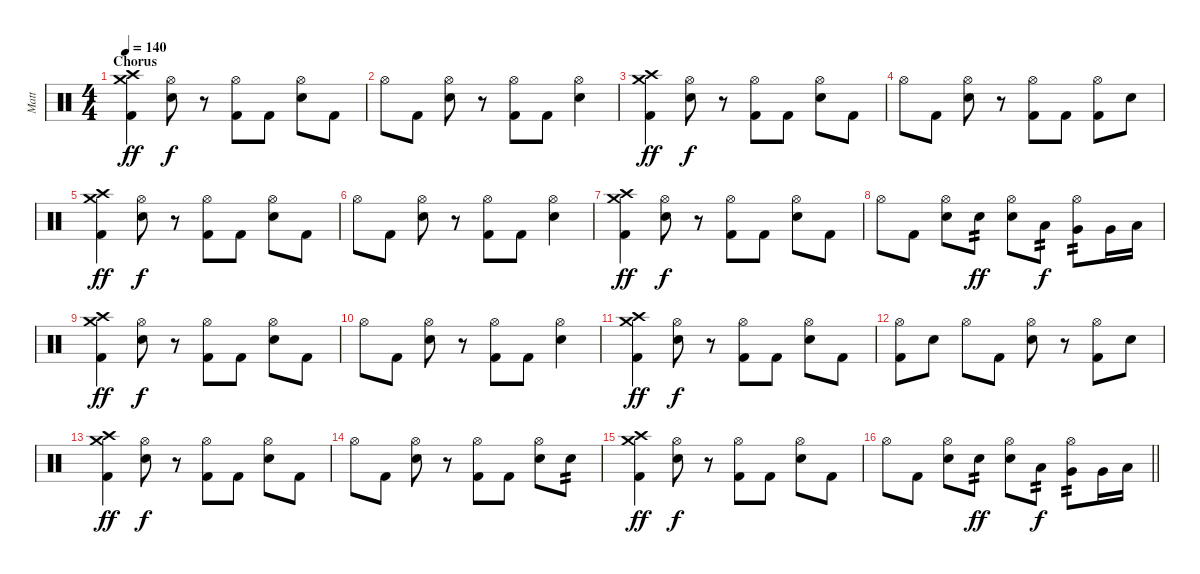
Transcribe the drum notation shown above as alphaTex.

\track ("Matt" "Matt") {instrument percussion}
\staff {score}
\articulation defaults
\ts (4 4)
\section ("" "Chorus")
\tempo 140
\clef neutral
\ks c
("Crash high (hit)" "Crash medium (hit)" "Kick (hit) 2").4{dy ff} ("Hi-Hat (open)" "Snare (hit) 2").8{dy f} r.8 ("Hi-Hat (open)" "Kick (hit) 2").8 "Kick (hit) 2".8 ("Hi-Hat (open)" "Snare (hit) 2").8 "Kick (hit) 2".8 |
"Hi-Hat (open)".8 "Kick (hit) 2".8 ("Hi-Hat (open)" "Snare (hit) 2").8 r.8 ("Hi-Hat (open)" "Kick (hit) 2").8 "Kick (hit) 2".8 ("Hi-Hat (open)" "Snare (hit) 2").4 |
("Crash high (hit)" "Crash medium (hit)" "Kick (hit) 2").4{dy ff} ("Hi-Hat (open)" "Snare (hit) 2").8{dy f} r.8 ("Hi-Hat (open)" "Kick (hit) 2").8 "Kick (hit) 2".8 ("Hi-Hat (open)" "Snare (hit) 2").8 "Kick (hit) 2".8 |
"Hi-Hat (open)".8 "Kick (hit) 2".8 ("Hi-Hat (open)" "Snare (hit) 2").8 r.8 ("Hi-Hat (open)" "Kick (hit) 2").8 "Kick (hit) 2".8 ("Hi-Hat (open)" "Kick (hit) 2").8 "Snare (hit) 2".8 |
("Crash high (hit)" "Crash medium (hit)" "Kick (hit) 2").4{dy ff} ("Hi-Hat (open)" "Snare (hit) 2").8{dy f} r.8 ("Hi-Hat (open)" "Kick (hit) 2").8 "Kick (hit) 2".8 ("Hi-Hat (open)" "Snare (hit) 2").8 "Kick (hit) 2".8 |
"Hi-Hat (open)".8 "Kick (hit) 2".8 ("Hi-Hat (open)" "Snare (hit) 2").8 r.8 ("Hi-Hat (open)" "Kick (hit) 2").8 "Kick (hit) 2".8 ("Hi-Hat (open)" "Snare (hit) 2").4 |
("Crash high (hit)" "Crash medium (hit)" "Kick (hit) 2").4{dy ff} ("Hi-Hat (open)" "Snare (hit) 2").8{dy f} r.8 ("Hi-Hat (open)" "Kick (hit) 2").8 "Kick (hit) 2".8 ("Hi-Hat (open)" "Snare (hit) 2").8 "Kick (hit) 2".8 |
"Hi-Hat (open)".8 "Kick (hit) 2".8 ("Hi-Hat (open)" "Snare (hit) 2").8 "Snare (hit) 2".8{tp 2 dy ff} ("Hi-Hat (open)" "Snare (hit) 2").8 "Low Tom (hit)".8{tp 2 dy f} ("Hi-Hat (open)" "Very Low Tom (hit)").8{tp 2} "Very Low Tom (hit)".16 "Low Floor Tom (hit)".16 |
("Crash high (hit)" "Crash medium (hit)" "Kick (hit) 2").4{dy ff} ("Hi-Hat (open)" "Snare (hit) 2").8{dy f} r.8 ("Hi-Hat (open)" "Kick (hit) 2").8 "Kick (hit) 2".8 ("Hi-Hat (open)" "Snare (hit) 2").8 "Kick (hit) 2".8 |
"Hi-Hat (open)".8 "Kick (hit) 2".8 ("Hi-Hat (open)" "Snare (hit) 2").8 r.8 ("Hi-Hat (open)" "Kick (hit) 2").8 "Kick (hit) 2".8 ("Hi-Hat (open)" "Snare (hit) 2").4 |
("Crash high (hit)" "Crash medium (hit)" "Kick (hit) 2").4{dy ff} ("Hi-Hat (open)" "Snare (hit) 2").8{dy f} r.8 ("Hi-Hat (open)" "Kick (hit) 2").8 "Kick (hit) 2".8 ("Hi-Hat (open)" "Snare (hit) 2").8 "Kick (hit) 2".8 |
("Hi-Hat (open)" "Kick (hit) 2").8 "Snare (hit) 2".8 "Hi-Hat (open)".8 "Kick (hit) 2".8 ("Hi-Hat (open)" "Snare (hit) 2").8 r.8 ("Hi-Hat (open)" "Kick (hit) 2").8 "Snare (hit) 2".8 |
("Crash high (hit)" "Crash medium (hit)" "Kick (hit) 2").4{dy ff} ("Hi-Hat (open)" "Snare (hit) 2").8{dy f} r.8 ("Hi-Hat (open)" "Kick (hit) 2").8 "Kick (hit) 2".8 ("Hi-Hat (open)" "Snare (hit) 2").8 "Kick (hit) 2".8 |
"Hi-Hat (open)".8 "Kick (hit) 2".8 ("Hi-Hat (open)" "Snare (hit) 2").8 r.8 ("Hi-Hat (open)" "Kick (hit) 2").8 "Kick (hit) 2".8 ("Hi-Hat (open)" "Snare (hit) 2").8 "Snare (hit) 2".8{tp 2} |
("Crash high (hit)" "Crash medium (hit)" "Kick (hit) 2").4{dy ff} ("Hi-Hat (open)" "Snare (hit) 2").8{dy f} r.8 ("Hi-Hat (open)" "Kick (hit) 2").8 "Kick (hit) 2".8 ("Hi-Hat (open)" "Snare (hit) 2").8 "Kick (hit) 2".8 |
\barLineRight lightlight "Hi-Hat (open)".8 "Kick (hit) 2".8
("Hi-Hat (open)" "Snare (hit) 2").8 "Snare (hit) 2".8{tp 2 dy ff} ("Hi-Hat (open)" "Snare (hit) 2").8 "Low Tom (hit)".8{tp 2 dy f} ("Hi-Hat (open)" "Very Low Tom (hit)").8{tp 2} "Very Low Tom (hit)".16 "Low Floor Tom (hit)".16
